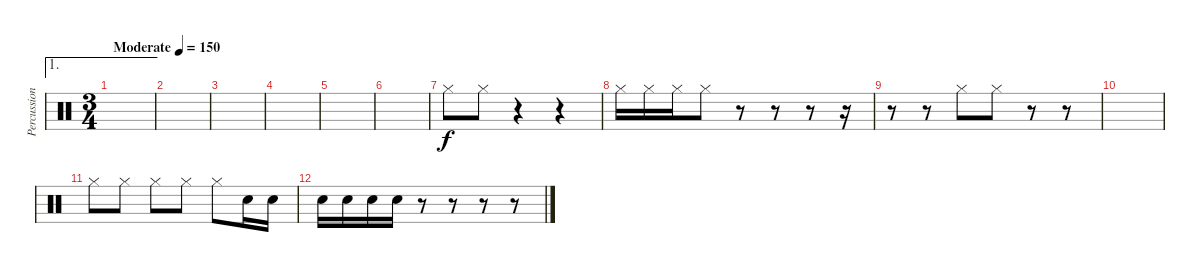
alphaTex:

\track ("Percussion" "Percussion") {instrument percussion}
\staff {score}
\articulation defaults
\ae 1
\ts (3 4)
\tempo (150 "Moderate")
\clef neutral
\ks c
|
|
|
|
|
|
"Hi-Hat (closed)".8 "Hi-Hat (closed)".8 r.4 r.4 |
"Hi-Hat (closed)".16 "Hi-Hat (closed)".16 "Hi-Hat (closed)".16 "Hi-Hat (closed)".8 r.8 r.8 r.8 r.16 |
r.8 r.8 "Hi-Hat (closed)".8 "Hi-Hat (closed)".8 r.8 r.8 |
|
"Hi-Hat (closed)".8 "Hi-Hat (closed)".8 "Hi-Hat (closed)".8 "Hi-Hat (closed)".8 "Hi-Hat (closed)".8 "Electric Snare (hit)".16 "Electric Snare (hit)".16 |
"Electric Snare (hit)".16 "Electric Snare (hit)".16 "Electric Snare (hit)".16 "Electric Snare (hit)".16 r.8 r.8 r.8 r.8
